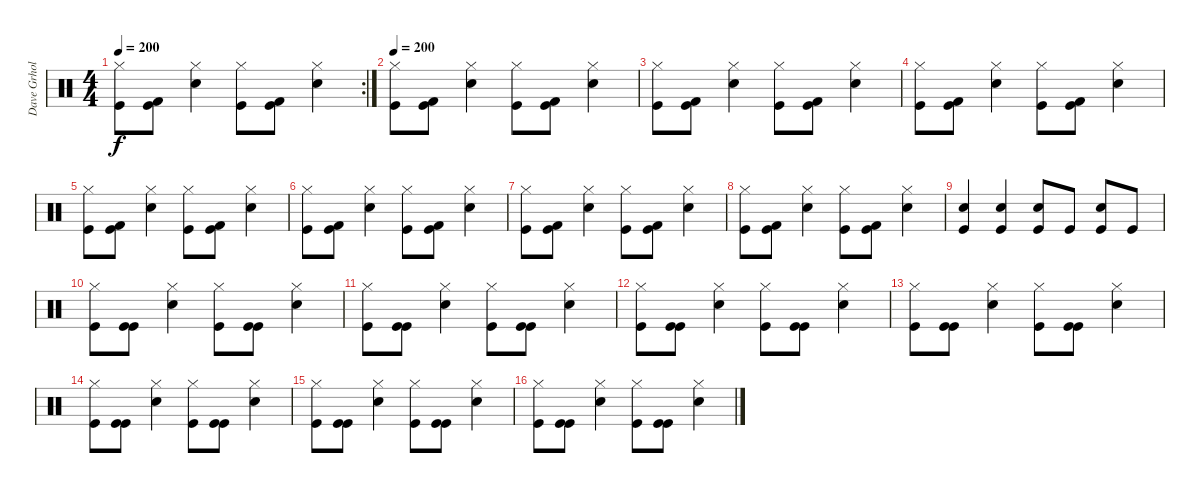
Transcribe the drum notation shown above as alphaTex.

\track ("Dave Grhol" "Dave Grhol") {instrument percussion}
\staff {score}
\articulation defaults
\rc 2
\ts (4 4)
\tempo 200
\clef neutral
\ks c
("Hi-Hat (closed)" "Kick (hit)").8{dy f} ("Kick (hit)" "Kick (hit) 2").8 ("Hi-Hat (closed)" "Snare (hit) 2").4 ("Hi-Hat (closed)" "Kick (hit)").8 ("Kick (hit)" "Kick (hit) 2").8 ("Hi-Hat (closed)" "Snare (hit) 2").4 |
\tempo 200
("Hi-Hat (closed)" "Kick (hit)").8 ("Kick (hit)" "Kick (hit) 2").8 ("Hi-Hat (closed)" "Snare (hit) 2").4 ("Hi-Hat (closed)" "Kick (hit)").8 ("Kick (hit)" "Kick (hit) 2").8 ("Hi-Hat (closed)" "Snare (hit) 2").4 |
("Hi-Hat (closed)" "Kick (hit)").8 ("Kick (hit)" "Kick (hit) 2").8 ("Hi-Hat (closed)" "Snare (hit) 2").4 ("Hi-Hat (closed)" "Kick (hit)").8 ("Kick (hit)" "Kick (hit) 2").8 ("Hi-Hat (closed)" "Snare (hit) 2").4 |
("Hi-Hat (closed)" "Kick (hit)").8 ("Kick (hit)" "Kick (hit) 2").8 ("Hi-Hat (closed)" "Snare (hit) 2").4 ("Hi-Hat (closed)" "Kick (hit)").8 ("Kick (hit)" "Kick (hit) 2").8 ("Hi-Hat (closed)" "Snare (hit) 2").4 |
("Hi-Hat (closed)" "Kick (hit)").8 ("Kick (hit)" "Kick (hit) 2").8 ("Hi-Hat (closed)" "Snare (hit) 2").4 ("Hi-Hat (closed)" "Kick (hit)").8 ("Kick (hit)" "Kick (hit) 2").8 ("Hi-Hat (closed)" "Snare (hit) 2").4 |
("Hi-Hat (closed)" "Kick (hit)").8 ("Kick (hit)" "Kick (hit) 2").8 ("Hi-Hat (closed)" "Snare (hit) 2").4 ("Hi-Hat (closed)" "Kick (hit)").8 ("Kick (hit)" "Kick (hit) 2").8 ("Hi-Hat (closed)" "Snare (hit) 2").4 |
("Hi-Hat (closed)" "Kick (hit)").8 ("Kick (hit)" "Kick (hit) 2").8 ("Hi-Hat (closed)" "Snare (hit) 2").4 ("Hi-Hat (closed)" "Kick (hit)").8 ("Kick (hit)" "Kick (hit) 2").8 ("Hi-Hat (closed)" "Snare (hit) 2").4 |
("Hi-Hat (closed)" "Kick (hit)").8 ("Kick (hit)" "Kick (hit) 2").8 ("Hi-Hat (closed)" "Snare (hit) 2").4 ("Hi-Hat (closed)" "Kick (hit)").8 ("Kick (hit)" "Kick (hit) 2").8 ("Hi-Hat (closed)" "Snare (hit) 2").4 |
("Kick (hit)" "Snare (hit) 2").4 ("Kick (hit)" "Snare (hit) 2").4 ("Kick (hit)" "Snare (hit) 2").8 "Kick (hit)".8 ("Kick (hit)" "Snare (hit) 2").8 "Kick (hit)".8 |
("Hi-Hat (closed)" "Kick (hit)").8 ("Kick (hit)" "Kick (hit)").8 ("Hi-Hat (closed)" "Snare (hit) 2").4 ("Hi-Hat (closed)" "Kick (hit)").8 ("Kick (hit)" "Kick (hit)").8 ("Hi-Hat (closed)" "Snare (hit) 2").4 |
("Hi-Hat (closed)" "Kick (hit)").8 ("Kick (hit)" "Kick (hit)").8 ("Hi-Hat (closed)" "Snare (hit) 2").4 ("Hi-Hat (closed)" "Kick (hit)").8 ("Kick (hit)" "Kick (hit)").8 ("Hi-Hat (closed)" "Snare (hit) 2").4 |
("Hi-Hat (closed)" "Kick (hit)").8 ("Kick (hit)" "Kick (hit)").8 ("Hi-Hat (closed)" "Snare (hit) 2").4 ("Hi-Hat (closed)" "Kick (hit)").8 ("Kick (hit)" "Kick (hit)").8 ("Hi-Hat (closed)" "Snare (hit) 2").4 |
("Hi-Hat (closed)" "Kick (hit)").8 ("Kick (hit)" "Kick (hit)").8 ("Hi-Hat (closed)" "Snare (hit) 2").4 ("Hi-Hat (closed)" "Kick (hit)").8 ("Kick (hit)" "Kick (hit)").8 ("Hi-Hat (closed)" "Snare (hit) 2").4 |
("Hi-Hat (closed)" "Kick (hit)").8 ("Kick (hit)" "Kick (hit)").8 ("Hi-Hat (closed)" "Snare (hit) 2").4 ("Hi-Hat (closed)" "Kick (hit)").8 ("Kick (hit)" "Kick (hit)").8 ("Hi-Hat (closed)" "Snare (hit) 2").4 |
("Hi-Hat (closed)" "Kick (hit)").8 ("Kick (hit)" "Kick (hit)").8 ("Hi-Hat (closed)" "Snare (hit) 2").4 ("Hi-Hat (closed)" "Kick (hit)").8 ("Kick (hit)" "Kick (hit)").8 ("Hi-Hat (closed)" "Snare (hit) 2").4 |
("Hi-Hat (closed)" "Kick (hit)").8 ("Kick (hit)" "Kick (hit)").8 ("Hi-Hat (closed)" "Snare (hit) 2").4 ("Hi-Hat (closed)" "Kick (hit)").8 ("Kick (hit)" "Kick (hit)").8 ("Hi-Hat (closed)" "Snare (hit) 2").4
